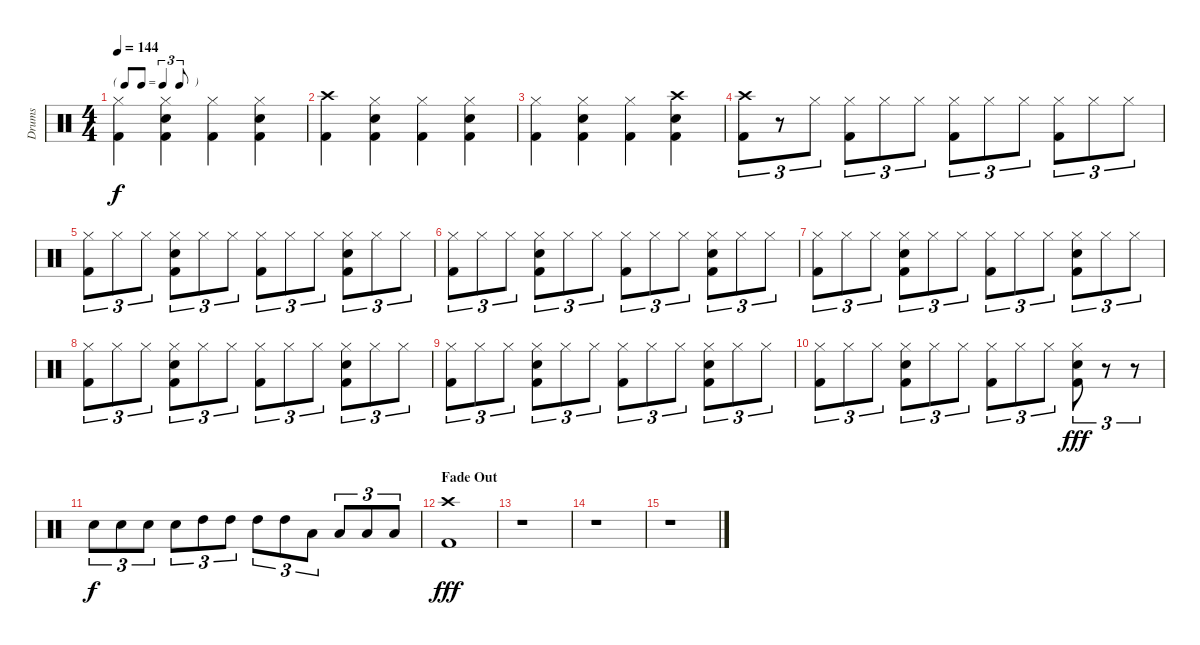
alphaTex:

\track ("Drums" "Drums") {instrument percussion}
\staff {score}
\articulation defaults
\ts (4 4)
\tf triplet8th
\tempo 144
\clef neutral
\ks c
("Hi-Hat (closed)" "Kick (hit) 2").4{dy f} ("Hi-Hat (closed)" "Snare (hit) 2" "Kick (hit) 2").4 ("Hi-Hat (closed)" "Kick (hit) 2").4 ("Hi-Hat (closed)" "Snare (hit) 2" "Kick (hit) 2").4 |
("Crash high (hit)" "Kick (hit) 2").4 ("Hi-Hat (closed)" "Snare (hit) 2" "Kick (hit) 2").4 ("Hi-Hat (closed)" "Kick (hit) 2").4 ("Hi-Hat (closed)" "Snare (hit) 2" "Kick (hit) 2").4 |
("Hi-Hat (closed)" "Kick (hit) 2").4 ("Hi-Hat (closed)" "Snare (hit) 2" "Kick (hit) 2").4 ("Hi-Hat (closed)" "Kick (hit) 2").4 ("Crash high (hit)" "Snare (hit) 2" "Kick (hit) 2").4 |
("Crash high (hit)" "Kick (hit) 2").8{tu (3 2)} r.8{tu (3 2)} "Hi-Hat (closed)".8{tu (3 2)} ("Hi-Hat (closed)" "Kick (hit) 2").8{tu (3 2)} "Hi-Hat (closed)".8{tu (3 2)} "Hi-Hat (closed)".8{tu (3 2)} ("Hi-Hat (closed)" "Kick (hit) 2").8{tu (3 2)} "Hi-Hat (closed)".8{tu (3 2)} "Hi-Hat (closed)".8{tu (3 2)} ("Hi-Hat (closed)" "Kick (hit) 2").8{tu (3 2)} "Hi-Hat (closed)".8{tu (3 2)} "Hi-Hat (closed)".8{tu (3 2)} |
("Hi-Hat (closed)" "Kick (hit) 2").8{tu (3 2)} "Hi-Hat (closed)".8{tu (3 2)} "Hi-Hat (closed)".8{tu (3 2)} ("Hi-Hat (closed)" "Snare (hit) 2" "Kick (hit) 2").8{tu (3 2)} "Hi-Hat (closed)".8{tu (3 2)} "Hi-Hat (closed)".8{tu (3 2)} ("Hi-Hat (closed)" "Kick (hit) 2").8{tu (3 2)} "Hi-Hat (closed)".8{tu (3 2)} "Hi-Hat (closed)".8{tu (3 2)} ("Hi-Hat (closed)" "Snare (hit) 2" "Kick (hit) 2").8{tu (3 2)} "Hi-Hat (closed)".8{tu (3 2)} "Hi-Hat (closed)".8{tu (3 2)} |
("Hi-Hat (closed)" "Kick (hit) 2").8{tu (3 2)} "Hi-Hat (closed)".8{tu (3 2)} "Hi-Hat (closed)".8{tu (3 2)} ("Hi-Hat (closed)" "Snare (hit) 2" "Kick (hit) 2").8{tu (3 2)} "Hi-Hat (closed)".8{tu (3 2)} "Hi-Hat (closed)".8{tu (3 2)} ("Hi-Hat (closed)" "Kick (hit) 2").8{tu (3 2)} "Hi-Hat (closed)".8{tu (3 2)} "Hi-Hat (closed)".8{tu (3 2)} ("Hi-Hat (closed)" "Snare (hit) 2" "Kick (hit) 2").8{tu (3 2)} "Hi-Hat (closed)".8{tu (3 2)} "Hi-Hat (closed)".8{tu (3 2)} |
("Hi-Hat (closed)" "Kick (hit) 2").8{tu (3 2)} "Hi-Hat (closed)".8{tu (3 2)} "Hi-Hat (closed)".8{tu (3 2)} ("Hi-Hat (closed)" "Snare (hit) 2" "Kick (hit) 2").8{tu (3 2)} "Hi-Hat (closed)".8{tu (3 2)} "Hi-Hat (closed)".8{tu (3 2)} ("Hi-Hat (closed)" "Kick (hit) 2").8{tu (3 2)} "Hi-Hat (closed)".8{tu (3 2)} "Hi-Hat (closed)".8{tu (3 2)} ("Hi-Hat (closed)" "Snare (hit) 2" "Kick (hit) 2").8{tu (3 2)} "Hi-Hat (closed)".8{tu (3 2)} "Hi-Hat (closed)".8{tu (3 2)} |
("Hi-Hat (closed)" "Kick (hit) 2").8{tu (3 2)} "Hi-Hat (closed)".8{tu (3 2)} "Hi-Hat (closed)".8{tu (3 2)} ("Hi-Hat (closed)" "Snare (hit) 2" "Kick (hit) 2").8{tu (3 2)} "Hi-Hat (closed)".8{tu (3 2)} "Hi-Hat (closed)".8{tu (3 2)} ("Hi-Hat (closed)" "Kick (hit) 2").8{tu (3 2)} "Hi-Hat (closed)".8{tu (3 2)} "Hi-Hat (closed)".8{tu (3 2)} ("Hi-Hat (closed)" "Snare (hit) 2" "Kick (hit) 2").8{tu (3 2)} "Hi-Hat (closed)".8{tu (3 2)} "Hi-Hat (closed)".8{tu (3 2)} |
("Hi-Hat (closed)" "Kick (hit) 2").8{tu (3 2)} "Hi-Hat (closed)".8{tu (3 2)} "Hi-Hat (closed)".8{tu (3 2)} ("Hi-Hat (closed)" "Snare (hit) 2" "Kick (hit) 2").8{tu (3 2)} "Hi-Hat (closed)".8{tu (3 2)} "Hi-Hat (closed)".8{tu (3 2)} ("Hi-Hat (closed)" "Kick (hit) 2").8{tu (3 2)} "Hi-Hat (closed)".8{tu (3 2)} "Hi-Hat (closed)".8{tu (3 2)} ("Hi-Hat (closed)" "Snare (hit) 2" "Kick (hit) 2").8{tu (3 2)} "Hi-Hat (closed)".8{tu (3 2)} "Hi-Hat (closed)".8{tu (3 2)} |
("Hi-Hat (closed)" "Kick (hit) 2").8{tu (3 2)} "Hi-Hat (closed)".8{tu (3 2)} "Hi-Hat (closed)".8{tu (3 2)} ("Hi-Hat (closed)" "Snare (hit) 2" "Kick (hit) 2").8{tu (3 2)} "Hi-Hat (closed)".8{tu (3 2)} "Hi-Hat (closed)".8{tu (3 2)} ("Hi-Hat (closed)" "Kick (hit) 2").8{tu (3 2)} "Hi-Hat (closed)".8{tu (3 2)} "Hi-Hat (closed)".8{tu (3 2)} ("Hi-Hat (closed)" "Snare (hit) 2" "Kick (hit) 2").8{tu (3 2) dy fff} r.8{tu (3 2)} r.8{tu (3 2)} |
"Snare (hit) 2".8{tu (3 2) dy f} "Snare (hit) 2".8{tu (3 2)} "Snare (hit) 2".8{tu (3 2)} "Snare (hit) 2".8{tu (3 2)} "High Tom (hit)".8{tu (3 2)} "High Tom (hit)".8{tu (3 2)} "High Tom (hit)".8{tu (3 2)} "High Tom (hit)".8{tu (3 2)} "Low Tom (hit)".8{tu (3 2)} "Low Tom (hit)".8{tu (3 2)} "Low Floor Tom (hit)".8{tu (3 2)} "Low Floor Tom (hit)".8{tu (3 2)} |
\section ("" "Fade Out")
("Crash high (hit)" "Kick (hit) 2").1{dy fff} |
r.1 |
r.1 |
r.1
